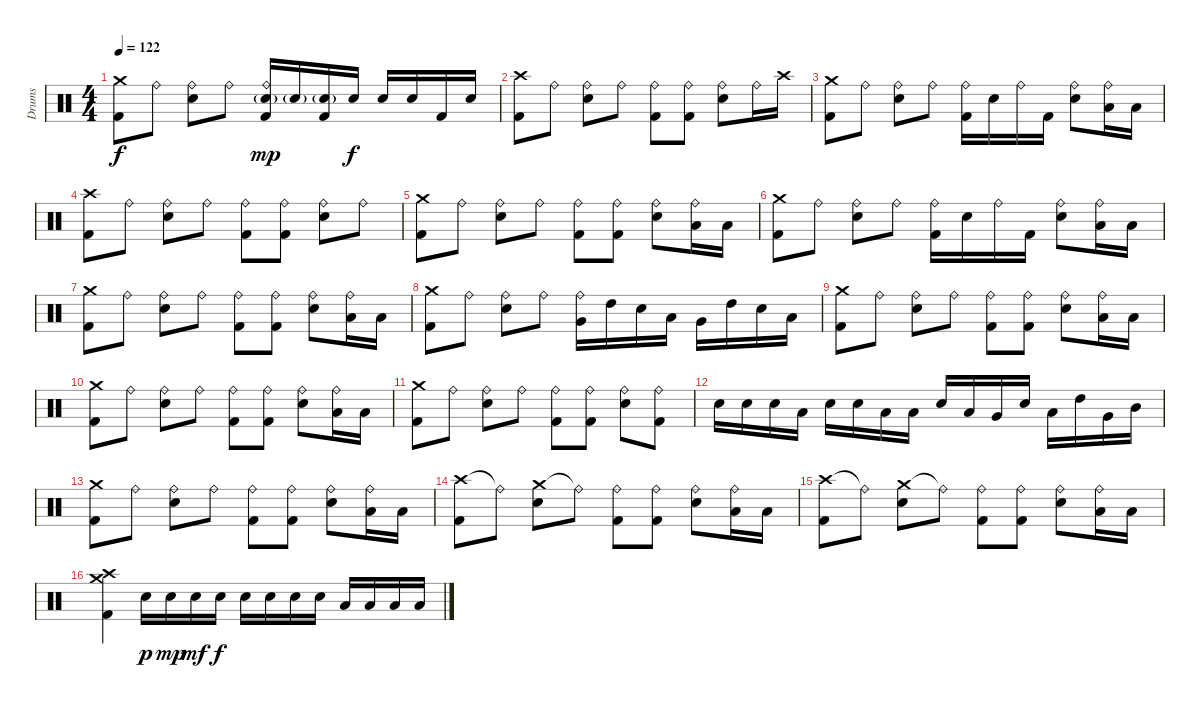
\track ("Drums" "Drums") {instrument percussion}
\staff {score}
\articulation defaults
\ts (4 4)
\tempo 122
\clef neutral
\ks c
("Crash medium (hit)" "Kick (hit) 2").8{dy f} "Ride (bell)".8 ("Ride (bell)" "Snare (hit) 2").8 "Ride (bell)".8 ("Ride (bell)" "Snare (hit) 2"{g} "Kick (hit) 2").16{dy mp} "Snare (hit) 2"{g}.16 ("Snare (hit) 2"{g} "Kick (hit) 2").16 "Snare (hit) 2".16{dy f} "Snare (hit) 2".16 "Snare (hit) 2".16 "Kick (hit) 2".16 "Snare (hit) 2".16 |
("Crash high (hit)" "Kick (hit) 2").8 "Ride (bell)".8 ("Ride (bell)" "Snare (hit) 2").8 "Ride (bell)".8 ("Ride (bell)" "Kick (hit) 2").8 ("Ride (bell)" "Kick (hit) 2").8 ("Ride (bell)" "Snare (hit) 2").8 "Ride (bell)".16 "Crash high (hit)".16 |
("Crash medium (hit)" "Kick (hit) 2").8 "Ride (bell)".8 ("Ride (bell)" "Snare (hit) 2").8 "Ride (bell)".8 ("Ride (bell)" "Kick (hit) 2").16 "Snare (hit) 2".16 "Ride (bell)".16 "Kick (hit) 2".16 ("Ride (bell)" "Snare (hit) 2").8 ("Ride (bell)" "Low Tom (hit)").16 "Low Tom (hit)".16 |
("Crash high (hit)" "Kick (hit) 2").8 "Ride (bell)".8 ("Ride (bell)" "Snare (hit) 2").8 "Ride (bell)".8 ("Ride (bell)" "Kick (hit) 2").8 ("Ride (bell)" "Kick (hit) 2").8 ("Ride (bell)" "Snare (hit) 2").8 "Ride (bell)".8 |
("Crash medium (hit)" "Kick (hit) 2").8 "Ride (bell)".8 ("Ride (bell)" "Snare (hit) 2").8 "Ride (bell)".8 ("Ride (bell)" "Kick (hit) 2").8 ("Ride (bell)" "Kick (hit) 2").8 ("Ride (bell)" "Snare (hit) 2").8 ("Ride (bell)" "Low Tom (hit)").16 "Low Tom (hit)".16 |
("Crash medium (hit)" "Kick (hit) 2").8 "Ride (bell)".8 ("Ride (bell)" "Snare (hit) 2").8 "Ride (bell)".8 ("Ride (bell)" "Kick (hit) 2").16 "Snare (hit) 2".16 "Ride (bell)".16 "Kick (hit) 2".16 ("Ride (bell)" "Snare (hit) 2").8 ("Ride (bell)" "Low Tom (hit)").16 "Low Tom (hit)".16 |
("Crash medium (hit)" "Kick (hit) 2").8 "Ride (bell)".8 ("Ride (bell)" "Snare (hit) 2").8 "Ride (bell)".8 ("Ride (bell)" "Kick (hit) 2").8 ("Ride (bell)" "Kick (hit) 2").8 ("Ride (bell)" "Snare (hit) 2").8 ("Ride (bell)" "Low Tom (hit)").16 "Low Tom (hit)".16 |
("Crash medium (hit)" "Kick (hit) 2").8 "Ride (bell)".8 ("Ride (bell)" "Snare (hit) 2").8 "Ride (bell)".8 ("Ride (bell)" "Very Low Tom (hit)").16 "High Tom (hit)".16 "Snare (hit) 2".16 "Low Tom (hit)".16 "Very Low Tom (hit)".16 "High Tom (hit)".16 "Snare (hit) 2".16 "Low Tom (hit)".16 |
("Crash medium (hit)" "Kick (hit) 2").8 "Ride (bell)".8 ("Ride (bell)" "Snare (hit) 2").8 "Ride (bell)".8 ("Ride (bell)" "Kick (hit) 2").8 ("Ride (bell)" "Kick (hit) 2").8 ("Ride (bell)" "Snare (hit) 2").8 ("Ride (bell)" "Low Tom (hit)").16 "Low Tom (hit)".16 |
("Crash medium (hit)" "Kick (hit) 2").8 "Ride (bell)".8 ("Ride (bell)" "Snare (hit) 2").8 "Ride (bell)".8 ("Ride (bell)" "Kick (hit) 2").8 ("Ride (bell)" "Kick (hit) 2").8 ("Ride (bell)" "Snare (hit) 2").8 ("Ride (bell)" "Low Tom (hit)").16 "Low Tom (hit)".16 |
("Crash medium (hit)" "Kick (hit) 2").8 "Ride (bell)".8 ("Ride (bell)" "Snare (hit) 2").8 "Ride (bell)".8 ("Ride (bell)" "Kick (hit) 2").8 ("Ride (bell)" "Kick (hit) 2").8 ("Ride (bell)" "Snare (hit) 2").8 ("Ride (bell)" "Kick (hit) 2").8 |
"Snare (hit) 2".16 "Snare (hit) 2".16 "Snare (hit) 2".16 "Low Tom (hit)".16 "Snare (hit) 2".16 "Snare (hit) 2".16 "Low Tom (hit)".16 "Low Tom (hit)".16 "Snare (hit) 2".16 "Low Tom (hit)".16 "Very Low Tom (hit)".16 "Snare (hit) 2".16 "Low Tom (hit)".16 "High Tom (hit)".16 "Very Low Tom (hit)".16 "Mid Tom (hit)".16 |
("Crash medium (hit)" "Kick (hit) 2").8 "Ride (bell)".8 ("Ride (bell)" "Snare (hit) 2").8 "Ride (bell)".8 ("Ride (bell)" "Kick (hit) 2").8 ("Ride (bell)" "Kick (hit) 2").8 ("Ride (bell)" "Snare (hit) 2").8 ("Ride (bell)" "Low Tom (hit)").16 "Low Tom (hit)".16 |
("Crash high (hit)" "Kick (hit) 2").8 "Ride (bell)"{t}.8 ("Crash medium (hit)" "Snare (hit) 2").8 "Ride (bell)"{t}.8 ("Ride (bell)" "Kick (hit) 2").8 ("Ride (bell)" "Kick (hit) 2").8 ("Ride (bell)" "Snare (hit) 2").8 ("Ride (bell)" "Low Tom (hit)").16 "Low Tom (hit)".16 |
("Crash high (hit)" "Kick (hit) 2").8 "Ride (bell)"{t}.8 ("Crash medium (hit)" "Snare (hit) 2").8 "Ride (bell)"{t}.8 ("Ride (bell)" "Kick (hit) 2").8 ("Ride (bell)" "Kick (hit) 2").8 ("Ride (bell)" "Snare (hit) 2").8 ("Ride (bell)" "Low Tom (hit)").16 "Low Tom (hit)".16 |
("Crash medium (hit)" "Crash high (hit)" "Kick (hit) 2").4 "Snare (hit) 2".16{dy p} "Snare (hit) 2".16{dy mp} "Snare (hit) 2".16{dy mf} "Snare (hit) 2".16{dy f} "Snare (hit) 2".16 "Snare (hit) 2".16 "Snare (hit) 2".16 "Snare (hit) 2".16 "Low Tom (hit)".16 "Low Tom (hit)".16 "Low Tom (hit)".16 "Low Tom (hit)".16
